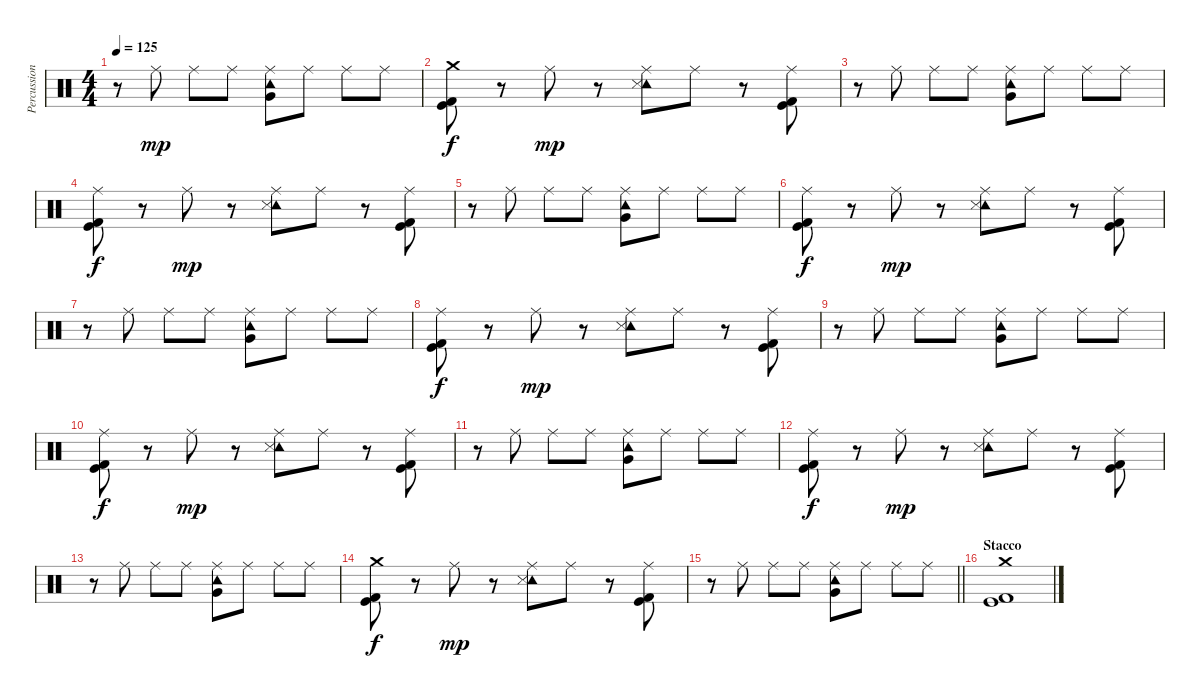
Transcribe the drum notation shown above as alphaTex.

\track ("Percussioni" "Percussion") {instrument percussion}
\staff {score}
\articulation defaults
\ts (4 4)
\tempo 125
\clef neutral
\ks c
r.8{dy mp} "Ride (middle)".8 "Ride (middle)".8 "Ride (middle)".8 ("Ride (middle)" "Tambourine (hit)" "Very Low Tom (hit)").8 "Ride (middle)".8 "Ride (middle)".8 "Ride (middle)".8 |
("Crash medium (hit)" "Kick (hit)" "Kick (hit) 2").8{dy f} r.8 "Ride (middle)".8{dy mp} r.8 ("Ride (middle)" "Tambourine (hit)" "Snare (side stick) 3").8 "Ride (middle)".8 r.8 ("Ride (middle)" "Kick (hit)" "Kick (hit) 2").8 |
r.8 "Ride (middle)".8 "Ride (middle)".8 "Ride (middle)".8 ("Ride (middle)" "Tambourine (hit)" "Very Low Tom (hit)").8 "Ride (middle)".8 "Ride (middle)".8 "Ride (middle)".8 |
("Ride (middle)" "Kick (hit)" "Kick (hit) 2").8{dy f} r.8 "Ride (middle)".8{dy mp} r.8 ("Ride (middle)" "Tambourine (hit)" "Snare (side stick) 3").8 "Ride (middle)".8 r.8 ("Ride (middle)" "Kick (hit)" "Kick (hit) 2").8 |
r.8 "Ride (middle)".8 "Ride (middle)".8 "Ride (middle)".8 ("Ride (middle)" "Tambourine (hit)" "Very Low Tom (hit)").8 "Ride (middle)".8 "Ride (middle)".8 "Ride (middle)".8 |
("Ride (middle)" "Kick (hit)" "Kick (hit) 2").8{dy f} r.8 "Ride (middle)".8{dy mp} r.8 ("Ride (middle)" "Tambourine (hit)" "Snare (side stick) 3").8 "Ride (middle)".8 r.8 ("Ride (middle)" "Kick (hit)" "Kick (hit) 2").8 |
r.8 "Ride (middle)".8 "Ride (middle)".8 "Ride (middle)".8 ("Ride (middle)" "Tambourine (hit)" "Very Low Tom (hit)").8 "Ride (middle)".8 "Ride (middle)".8 "Ride (middle)".8 |
("Ride (middle)" "Kick (hit)" "Kick (hit) 2").8{dy f} r.8 "Ride (middle)".8{dy mp} r.8 ("Ride (middle)" "Tambourine (hit)" "Snare (side stick) 3").8 "Ride (middle)".8 r.8 ("Ride (middle)" "Kick (hit)" "Kick (hit) 2").8 |
r.8 "Ride (middle)".8 "Ride (middle)".8 "Ride (middle)".8 ("Ride (middle)" "Tambourine (hit)" "Very Low Tom (hit)").8 "Ride (middle)".8 "Ride (middle)".8 "Ride (middle)".8 |
("Ride (middle)" "Kick (hit)" "Kick (hit) 2").8{dy f} r.8 "Ride (middle)".8{dy mp} r.8 ("Ride (middle)" "Tambourine (hit)" "Snare (side stick) 3").8 "Ride (middle)".8 r.8 ("Ride (middle)" "Kick (hit)" "Kick (hit) 2").8 |
r.8 "Ride (middle)".8 "Ride (middle)".8 "Ride (middle)".8 ("Ride (middle)" "Tambourine (hit)" "Very Low Tom (hit)").8 "Ride (middle)".8 "Ride (middle)".8 "Ride (middle)".8 |
("Ride (middle)" "Kick (hit)" "Kick (hit) 2").8{dy f} r.8 "Ride (middle)".8{dy mp} r.8 ("Ride (middle)" "Tambourine (hit)" "Snare (side stick) 3").8 "Ride (middle)".8 r.8 ("Ride (middle)" "Kick (hit)" "Kick (hit) 2").8 |
r.8 "Ride (middle)".8 "Ride (middle)".8 "Ride (middle)".8 ("Ride (middle)" "Tambourine (hit)" "Very Low Tom (hit)").8 "Ride (middle)".8 "Ride (middle)".8 "Ride (middle)".8 |
("Crash medium (hit)" "Kick (hit)" "Kick (hit) 2").8{dy f} r.8 "Ride (middle)".8{dy mp} r.8 ("Ride (middle)" "Tambourine (hit)" "Snare (side stick) 3").8 "Ride (middle)".8 r.8 ("Ride (middle)" "Kick (hit)" "Kick (hit) 2").8 |
\barLineRight lightlight
r.8 "Ride (middle)".8 "Ride (middle)".8 "Ride (middle)".8 ("Ride (middle)" "Tambourine (hit)" "Very Low Tom (hit)").8 "Ride (middle)".8 "Ride (middle)".8 "Ride (middle)".8 |
\section ("" "Stacco")
("Crash medium (hit)" "Kick (hit)" "Kick (hit) 2").1
